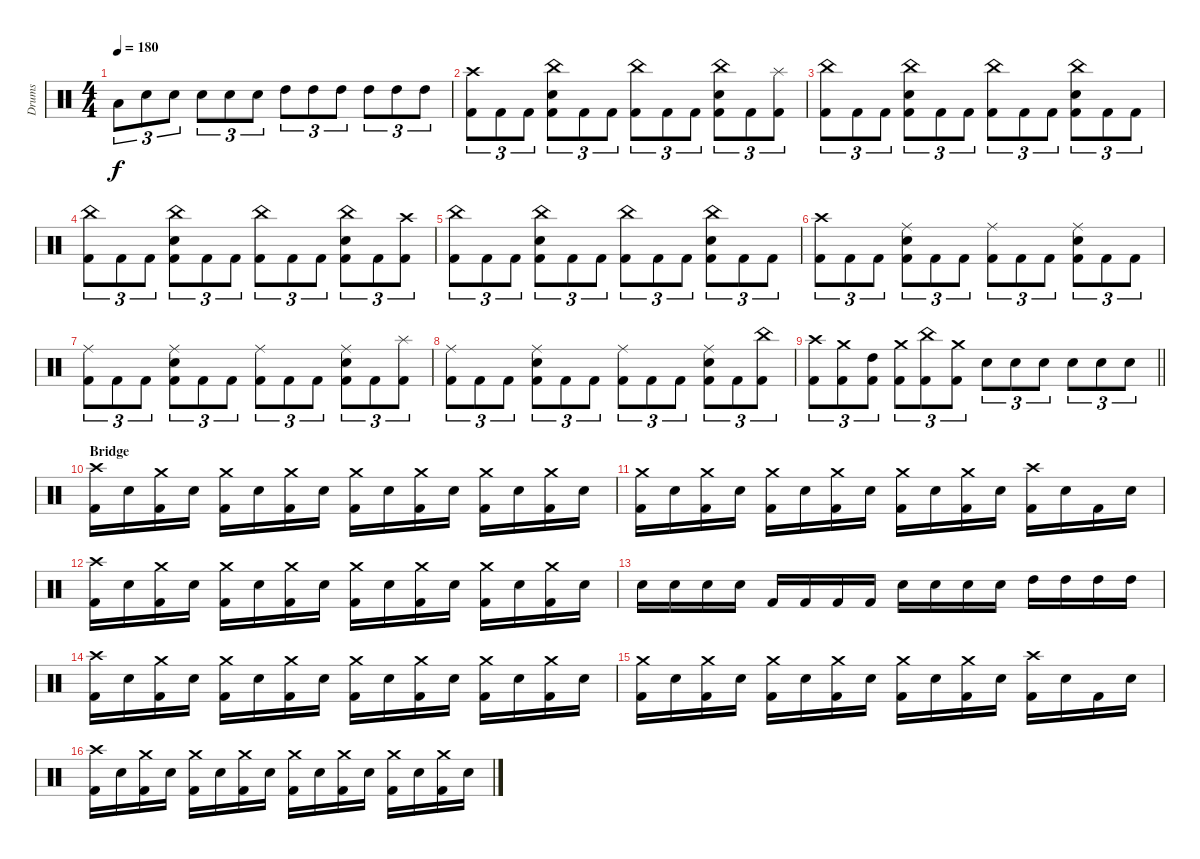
\track ("Drums" "Drums") {instrument percussion}
\staff {score}
\articulation defaults
\ts (4 4)
\tempo 180
\clef neutral
\ks c "Low Tom (hit)".8{tu (3 2) dy f} "Electric Snare (hit)".8{tu (3 2)} "Electric Snare (hit)".8{tu (3 2)} "Electric Snare (hit)".8{tu (3 2)} "Electric Snare (hit)".8{tu (3 2)} "Electric Snare (hit)".8{tu (3 2)} "High Tom (hit)".8{tu (3 2)} "High Tom (hit)".8{tu (3 2)} "High Tom (hit)".8{tu (3 2)} "High Tom (hit)".8{tu (3 2)} "High Tom (hit)".8{tu (3 2)} "High Tom (hit)".8{tu (3 2)}
|
("Crash high (hit)" "Kick (hit) 2").8{tu (3 2)} "Kick (hit) 2".8{tu (3 2)} "Kick (hit) 2".8{tu (3 2)} ("China (hit)" "Electric Snare (hit)" "Kick (hit) 2").8{tu (3 2)} "Kick (hit) 2".8{tu (3 2)} "Kick (hit) 2".8{tu (3 2)} ("China (hit)" "Kick (hit) 2").8{tu (3 2)} "Kick (hit) 2".8{tu (3 2)} "Kick (hit) 2".8{tu (3 2)} ("China (hit)" "Electric Snare (hit)" "Kick (hit) 2").8{tu (3 2)} "Kick (hit) 2".8{tu (3 2)} ("Splash (hit)" "Kick (hit) 2").8{tu (3 2)} |
("China (hit)" "Kick (hit) 2").8{tu (3 2)} "Kick (hit) 2".8{tu (3 2)} "Kick (hit) 2".8{tu (3 2)} ("China (hit)" "Electric Snare (hit)" "Kick (hit) 2").8{tu (3 2)} "Kick (hit) 2".8{tu (3 2)} "Kick (hit) 2".8{tu (3 2)} ("China (hit)" "Kick (hit) 2").8{tu (3 2)} "Kick (hit) 2".8{tu (3 2)} "Kick (hit) 2".8{tu (3 2)} ("China (hit)" "Electric Snare (hit)" "Kick (hit) 2").8{tu (3 2)} "Kick (hit) 2".8{tu (3 2)} "Kick (hit) 2".8{tu (3 2)} |
("China (hit)" "Kick (hit) 2").8{tu (3 2)} "Kick (hit) 2".8{tu (3 2)} "Kick (hit) 2".8{tu (3 2)} ("China (hit)" "Electric Snare (hit)" "Kick (hit) 2").8{tu (3 2)} "Kick (hit) 2".8{tu (3 2)} "Kick (hit) 2".8{tu (3 2)} ("China (hit)" "Kick (hit) 2").8{tu (3 2)} "Kick (hit) 2".8{tu (3 2)} "Kick (hit) 2".8{tu (3 2)} ("China (hit)" "Electric Snare (hit)" "Kick (hit) 2").8{tu (3 2)} "Kick (hit) 2".8{tu (3 2)} ("Crash high (hit)" "Kick (hit) 2").8{tu (3 2)} |
("China (hit)" "Kick (hit) 2").8{tu (3 2)} "Kick (hit) 2".8{tu (3 2)} "Kick (hit) 2".8{tu (3 2)} ("China (hit)" "Electric Snare (hit)" "Kick (hit) 2").8{tu (3 2)} "Kick (hit) 2".8{tu (3 2)} "Kick (hit) 2".8{tu (3 2)} ("China (hit)" "Kick (hit) 2").8{tu (3 2)} "Kick (hit) 2".8{tu (3 2)} "Kick (hit) 2".8{tu (3 2)} ("China (hit)" "Electric Snare (hit)" "Kick (hit) 2").8{tu (3 2)} "Kick (hit) 2".8{tu (3 2)} "Kick (hit) 2".8{tu (3 2)} |
("Crash high (hit)" "Kick (hit) 2").8{tu (3 2)} "Kick (hit) 2".8{tu (3 2)} "Kick (hit) 2".8{tu (3 2)} ("Ride (middle)" "Electric Snare (hit)" "Kick (hit) 2").8{tu (3 2)} "Kick (hit) 2".8{tu (3 2)} "Kick (hit) 2".8{tu (3 2)} ("Ride (middle)" "Kick (hit) 2").8{tu (3 2)} "Kick (hit) 2".8{tu (3 2)} "Kick (hit) 2".8{tu (3 2)} ("Ride (middle)" "Electric Snare (hit)" "Kick (hit) 2").8{tu (3 2)} "Kick (hit) 2".8{tu (3 2)} "Kick (hit) 2".8{tu (3 2)} |
("Ride (middle)" "Kick (hit) 2").8{tu (3 2)} "Kick (hit) 2".8{tu (3 2)} "Kick (hit) 2".8{tu (3 2)} ("Ride (middle)" "Electric Snare (hit)" "Kick (hit) 2").8{tu (3 2)} "Kick (hit) 2".8{tu (3 2)} "Kick (hit) 2".8{tu (3 2)} ("Ride (middle)" "Kick (hit) 2").8{tu (3 2)} "Kick (hit) 2".8{tu (3 2)} "Kick (hit) 2".8{tu (3 2)} ("Ride (middle)" "Electric Snare (hit)" "Kick (hit) 2").8{tu (3 2)} "Kick (hit) 2".8{tu (3 2)} ("Splash (hit)" "Kick (hit) 2").8{tu (3 2)} |
("Ride (middle)" "Kick (hit) 2").8{tu (3 2)} "Kick (hit) 2".8{tu (3 2)} "Kick (hit) 2".8{tu (3 2)} ("Ride (middle)" "Electric Snare (hit)" "Kick (hit) 2").8{tu (3 2)} "Kick (hit) 2".8{tu (3 2)} "Kick (hit) 2".8{tu (3 2)} ("Ride (middle)" "Kick (hit) 2").8{tu (3 2)} "Kick (hit) 2".8{tu (3 2)} "Kick (hit) 2".8{tu (3 2)} ("Ride (middle)" "Electric Snare (hit)" "Kick (hit) 2").8{tu (3 2)} "Kick (hit) 2".8{tu (3 2)} ("China (hit)" "Kick (hit) 2").8{tu (3 2)} |
\barLineRight lightlight
("Crash high (hit)" "Kick (hit) 2").8{tu (3 2)} ("Crash medium (hit)" "Kick (hit) 2").8{tu (3 2)} ("High Tom (hit)" "Kick (hit) 2").8{tu (3 2)} ("Crash medium (hit)" "Kick (hit) 2").8{tu (3 2)} ("China (hit)" "Kick (hit) 2").8{tu (3 2)} ("Crash medium (hit)" "Kick (hit) 2").8{tu (3 2)} "Electric Snare (hit)".8{tu (3 2)} "Electric Snare (hit)".8{tu (3 2)} "Electric Snare (hit)".8{tu (3 2)} "Electric Snare (hit)".8{tu (3 2)} "Electric Snare (hit)".8{tu (3 2)} "Electric Snare (hit)".8{tu (3 2)} |
\section ("" "Bridge")
("Crash high (hit)" "Kick (hit) 2").16 "Electric Snare (hit)".16 ("Crash medium (hit)" "Kick (hit) 2").16 "Electric Snare (hit)".16 ("Crash medium (hit)" "Kick (hit) 2").16 "Electric Snare (hit)".16 ("Crash medium (hit)" "Kick (hit) 2").16 "Electric Snare (hit)".16 ("Crash medium (hit)" "Kick (hit) 2").16 "Electric Snare (hit)".16 ("Crash medium (hit)" "Kick (hit) 2").16 "Electric Snare (hit)".16 ("Crash medium (hit)" "Kick (hit) 2").16 "Electric Snare (hit)".16 ("Crash medium (hit)" "Kick (hit) 2").16 "Electric Snare (hit)".16 |
("Crash medium (hit)" "Kick (hit) 2").16 "Electric Snare (hit)".16 ("Crash medium (hit)" "Kick (hit) 2").16 "Electric Snare (hit)".16 ("Crash medium (hit)" "Kick (hit) 2").16 "Electric Snare (hit)".16 ("Crash medium (hit)" "Kick (hit) 2").16 "Electric Snare (hit)".16 ("Crash medium (hit)" "Kick (hit) 2").16 "Electric Snare (hit)".16 ("Crash medium (hit)" "Kick (hit) 2").16 "Electric Snare (hit)".16 ("Crash high (hit)" "Kick (hit) 2").16 "Electric Snare (hit)".16 "Kick (hit) 2".16 "Electric Snare (hit)".16 |
("Crash high (hit)" "Kick (hit) 2").16 "Electric Snare (hit)".16 ("Crash medium (hit)" "Kick (hit) 2").16 "Electric Snare (hit)".16 ("Crash medium (hit)" "Kick (hit) 2").16 "Electric Snare (hit)".16 ("Crash medium (hit)" "Kick (hit) 2").16 "Electric Snare (hit)".16 ("Crash medium (hit)" "Kick (hit) 2").16 "Electric Snare (hit)".16 ("Crash medium (hit)" "Kick (hit) 2").16 "Electric Snare (hit)".16 ("Crash medium (hit)" "Kick (hit) 2").16 "Electric Snare (hit)".16 ("Crash medium (hit)" "Kick (hit) 2").16 "Electric Snare (hit)".16 |
"Electric Snare (hit)".16 "Electric Snare (hit)".16 "Electric Snare (hit)".16 "Electric Snare (hit)".16 "Kick (hit) 2".16 "Kick (hit) 2".16 "Kick (hit) 2".16 "Kick (hit) 2".16 "Electric Snare (hit)".16 "Electric Snare (hit)".16 "Electric Snare (hit)".16 "Electric Snare (hit)".16 "High Tom (hit)".16 "High Tom (hit)".16 "High Tom (hit)".16 "High Tom (hit)".16 |
("Crash high (hit)" "Kick (hit) 2").16 "Electric Snare (hit)".16 ("Crash medium (hit)" "Kick (hit) 2").16 "Electric Snare (hit)".16 ("Crash medium (hit)" "Kick (hit) 2").16 "Electric Snare (hit)".16 ("Crash medium (hit)" "Kick (hit) 2").16 "Electric Snare (hit)".16 ("Crash medium (hit)" "Kick (hit) 2").16 "Electric Snare (hit)".16 ("Crash medium (hit)" "Kick (hit) 2").16 "Electric Snare (hit)".16 ("Crash medium (hit)" "Kick (hit) 2").16 "Electric Snare (hit)".16 ("Crash medium (hit)" "Kick (hit) 2").16 "Electric Snare (hit)".16 |
("Crash medium (hit)" "Kick (hit) 2").16 "Electric Snare (hit)".16 ("Crash medium (hit)" "Kick (hit) 2").16 "Electric Snare (hit)".16 ("Crash medium (hit)" "Kick (hit) 2").16 "Electric Snare (hit)".16 ("Crash medium (hit)" "Kick (hit) 2").16 "Electric Snare (hit)".16 ("Crash medium (hit)" "Kick (hit) 2").16 "Electric Snare (hit)".16 ("Crash medium (hit)" "Kick (hit) 2").16 "Electric Snare (hit)".16 ("Crash high (hit)" "Kick (hit) 2").16 "Electric Snare (hit)".16 "Kick (hit) 2".16 "Electric Snare (hit)".16 |
("Crash high (hit)" "Kick (hit) 2").16 "Electric Snare (hit)".16 ("Crash medium (hit)" "Kick (hit) 2").16 "Electric Snare (hit)".16 ("Crash medium (hit)" "Kick (hit) 2").16 "Electric Snare (hit)".16 ("Crash medium (hit)" "Kick (hit) 2").16 "Electric Snare (hit)".16 ("Crash medium (hit)" "Kick (hit) 2").16 "Electric Snare (hit)".16 ("Crash medium (hit)" "Kick (hit) 2").16 "Electric Snare (hit)".16 ("Crash medium (hit)" "Kick (hit) 2").16 "Electric Snare (hit)".16 ("Crash medium (hit)" "Kick (hit) 2").16 "Electric Snare (hit)".16
